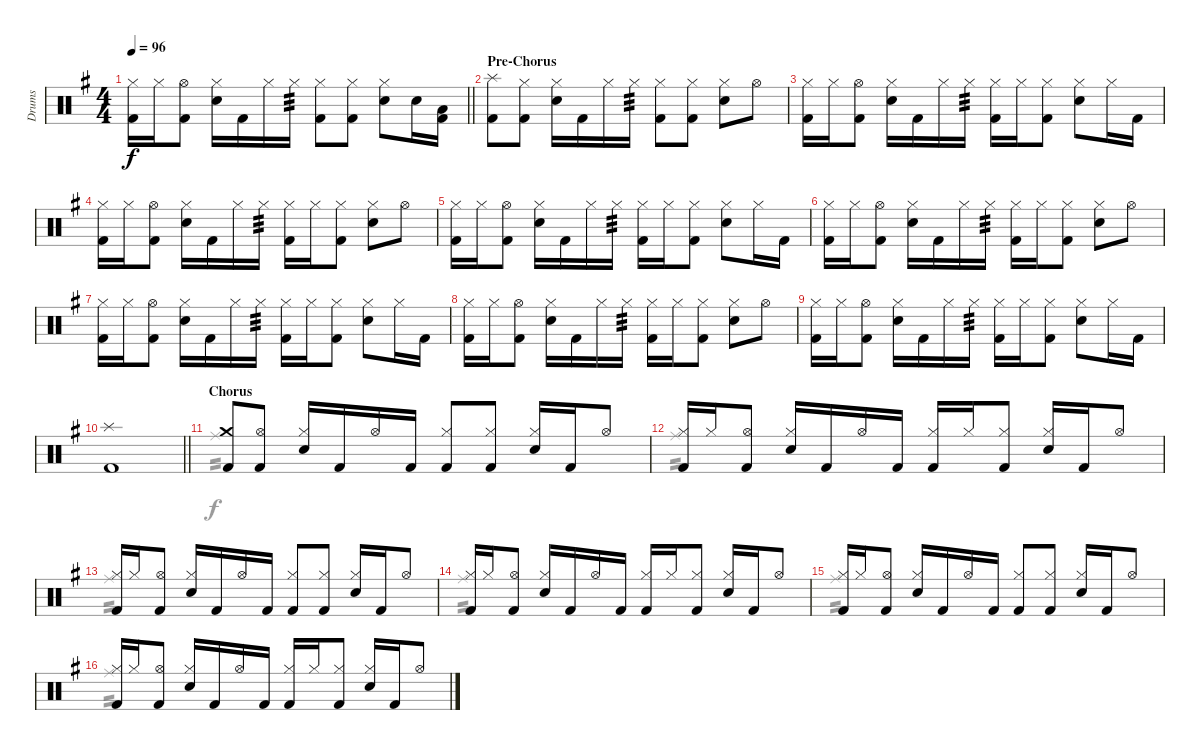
\track ("Drums" "Drums") {instrument percussion}
\staff {score}
\articulation defaults
\voice
\ts (4 4)
\tempo 96
\clef neutral
\barLineRight lightlight
\ks g
("Hi-Hat (closed)" "Kick (hit) 2").16{dy f} "Hi-Hat (closed)".16 ("Hi-Hat (open)" "Kick (hit) 2").8 ("Hi-Hat (closed)" "Electric Snare (hit)").16 "Kick (hit) 2".16 "Hi-Hat (closed)".16 "Hi-Hat (closed)".16{tp 3} ("Hi-Hat (closed)" "Kick (hit) 2").8 ("Hi-Hat (closed)" "Kick (hit) 2").8 ("Hi-Hat (closed)" "Electric Snare (hit)").8 "Electric Snare (hit)".16 ("Low Tom (hit)" "Kick (hit) 2").16 |
\section ("" "Pre-Chorus")
("Splash (hit)" "Kick (hit) 2").8 ("Hi-Hat (closed)" "Kick (hit) 2").8 ("Hi-Hat (closed)" "Electric Snare (hit)").16 "Kick (hit) 2".16 "Hi-Hat (closed)".16 "Hi-Hat (closed)".16{tp 3} ("Hi-Hat (closed)" "Kick (hit) 2").8 ("Hi-Hat (closed)" "Kick (hit) 2").8 ("Hi-Hat (closed)" "Electric Snare (hit)").8 "Hi-Hat (open)".8 |
("Hi-Hat (closed)" "Kick (hit) 2").16 "Hi-Hat (closed)".16 ("Hi-Hat (open)" "Kick (hit) 2").8 ("Hi-Hat (closed)" "Electric Snare (hit)").16 "Kick (hit) 2".16 "Hi-Hat (closed)".16 "Hi-Hat (closed)".16{tp 3} ("Hi-Hat (closed)" "Kick (hit) 2").16 "Hi-Hat (closed)".16 ("Hi-Hat (closed)" "Kick (hit) 2").8 ("Hi-Hat (closed)" "Electric Snare (hit)").8 "Hi-Hat (closed)".16 "Kick (hit) 2".16 |
("Hi-Hat (closed)" "Kick (hit) 2").16 "Hi-Hat (closed)".16 ("Hi-Hat (open)" "Kick (hit) 2").8 ("Hi-Hat (closed)" "Electric Snare (hit)").16 "Kick (hit) 2".16 "Hi-Hat (closed)".16 "Hi-Hat (closed)".16{tp 3} ("Hi-Hat (closed)" "Kick (hit) 2").16 "Hi-Hat (closed)".16 ("Hi-Hat (closed)" "Kick (hit) 2").8 ("Hi-Hat (closed)" "Electric Snare (hit)").8 "Hi-Hat (open)".8 |
("Hi-Hat (closed)" "Kick (hit) 2").16 "Hi-Hat (closed)".16 ("Hi-Hat (open)" "Kick (hit) 2").8 ("Hi-Hat (closed)" "Electric Snare (hit)").16 "Kick (hit) 2".16 "Hi-Hat (closed)".16 "Hi-Hat (closed)".16{tp 3} ("Hi-Hat (closed)" "Kick (hit) 2").16 "Hi-Hat (closed)".16 ("Hi-Hat (closed)" "Kick (hit) 2").8 ("Hi-Hat (closed)" "Electric Snare (hit)").8 "Hi-Hat (closed)".16 "Kick (hit) 2".16 |
("Hi-Hat (closed)" "Kick (hit) 2").16 "Hi-Hat (closed)".16 ("Hi-Hat (open)" "Kick (hit) 2").8 ("Hi-Hat (closed)" "Electric Snare (hit)").16 "Kick (hit) 2".16 "Hi-Hat (closed)".16 "Hi-Hat (closed)".16{tp 3} ("Hi-Hat (closed)" "Kick (hit) 2").16 "Hi-Hat (closed)".16 ("Hi-Hat (closed)" "Kick (hit) 2").8 ("Hi-Hat (closed)" "Electric Snare (hit)").8 "Hi-Hat (open)".8 |
("Hi-Hat (closed)" "Kick (hit) 2").16 "Hi-Hat (closed)".16 ("Hi-Hat (open)" "Kick (hit) 2").8 ("Hi-Hat (closed)" "Electric Snare (hit)").16 "Kick (hit) 2".16 "Hi-Hat (closed)".16 "Hi-Hat (closed)".16{tp 3} ("Hi-Hat (closed)" "Kick (hit) 2").16 "Hi-Hat (closed)".16 ("Hi-Hat (closed)" "Kick (hit) 2").8 ("Hi-Hat (closed)" "Electric Snare (hit)").8 "Hi-Hat (closed)".16 "Kick (hit) 2".16 |
("Hi-Hat (closed)" "Kick (hit) 2").16 "Hi-Hat (closed)".16 ("Hi-Hat (open)" "Kick (hit) 2").8 ("Hi-Hat (closed)" "Electric Snare (hit)").16 "Kick (hit) 2".16 "Hi-Hat (closed)".16 "Hi-Hat (closed)".16{tp 3} ("Hi-Hat (closed)" "Kick (hit) 2").16 "Hi-Hat (closed)".16 ("Hi-Hat (closed)" "Kick (hit) 2").8 ("Hi-Hat (closed)" "Electric Snare (hit)").8 "Hi-Hat (open)".8 |
("Hi-Hat (closed)" "Kick (hit) 2").16 "Hi-Hat (closed)".16 ("Hi-Hat (open)" "Kick (hit) 2").8 ("Hi-Hat (closed)" "Electric Snare (hit)").16 "Kick (hit) 2".16 "Hi-Hat (closed)".16 "Hi-Hat (closed)".16{tp 3} ("Hi-Hat (closed)" "Kick (hit) 2").16 "Hi-Hat (closed)".16 ("Hi-Hat (closed)" "Kick (hit) 2").8 ("Hi-Hat (closed)" "Electric Snare (hit)").8 "Hi-Hat (closed)".16 "Kick (hit) 2".16 |
\barLineRight lightlight
("Splash (hit)" "Kick (hit) 2").1 |
\section ("" "Chorus")
("Crash medium (hit)" "Kick (hit) 2").8 ("Hi-Hat (open)" "Kick (hit) 2").8 ("Hi-Hat (closed)" "Electric Snare (hit)").16 "Kick (hit) 2".16 "Hi-Hat (open)".16 "Kick (hit) 2".16 ("Hi-Hat (closed)" "Kick (hit) 2").8 ("Hi-Hat (closed)" "Kick (hit) 2").8 ("Hi-Hat (closed)" "Electric Snare (hit)").16 "Kick (hit) 2".16 "Hi-Hat (open)".8 |
("Hi-Hat (closed)" "Kick (hit) 2").16 "Hi-Hat (closed)".16 ("Hi-Hat (open)" "Kick (hit) 2").8 ("Hi-Hat (closed)" "Electric Snare (hit)").16 "Kick (hit) 2".16 "Hi-Hat (open)".16 "Kick (hit) 2".16 ("Hi-Hat (closed)" "Kick (hit) 2").16 "Hi-Hat (closed)".16 ("Hi-Hat (closed)" "Kick (hit) 2").8 ("Hi-Hat (closed)" "Electric Snare (hit)").16 "Kick (hit) 2".16 "Hi-Hat (open)".8 |
("Hi-Hat (closed)" "Kick (hit) 2").16 "Hi-Hat (closed)".16 ("Hi-Hat (open)" "Kick (hit) 2").8 ("Hi-Hat (closed)" "Electric Snare (hit)").16 "Kick (hit) 2".16 "Hi-Hat (open)".16 "Kick (hit) 2".16 ("Hi-Hat (closed)" "Kick (hit) 2").8 ("Hi-Hat (closed)" "Kick (hit) 2").8 ("Hi-Hat (closed)" "Electric Snare (hit)").16 "Kick (hit) 2".16 "Hi-Hat (open)".8 |
("Hi-Hat (closed)" "Kick (hit) 2").16 "Hi-Hat (closed)".16 ("Hi-Hat (open)" "Kick (hit) 2").8 ("Hi-Hat (closed)" "Electric Snare (hit)").16 "Kick (hit) 2".16 "Hi-Hat (open)".16 "Kick (hit) 2".16 ("Hi-Hat (closed)" "Kick (hit) 2").16 "Hi-Hat (closed)".16 ("Hi-Hat (closed)" "Kick (hit) 2").8 ("Hi-Hat (closed)" "Electric Snare (hit)").16 "Kick (hit) 2".16 "Hi-Hat (open)".8 |
("Hi-Hat (closed)" "Kick (hit) 2").16 "Hi-Hat (closed)".16 ("Hi-Hat (open)" "Kick (hit) 2").8 ("Hi-Hat (closed)" "Electric Snare (hit)").16 "Kick (hit) 2".16 "Hi-Hat (open)".16 "Kick (hit) 2".16 ("Hi-Hat (closed)" "Kick (hit) 2").8 ("Hi-Hat (closed)" "Kick (hit) 2").8 ("Hi-Hat (closed)" "Electric Snare (hit)").16 "Kick (hit) 2".16 "Hi-Hat (open)".8 |
("Hi-Hat (closed)" "Kick (hit) 2").16 "Hi-Hat (closed)".16 ("Hi-Hat (open)" "Kick (hit) 2").8 ("Hi-Hat (closed)" "Electric Snare (hit)").16 "Kick (hit) 2".16 "Hi-Hat (open)".16 "Kick (hit) 2".16 ("Hi-Hat (closed)" "Kick (hit) 2").16 "Hi-Hat (closed)".16 ("Hi-Hat (closed)" "Kick (hit) 2").8 ("Hi-Hat (closed)" "Electric Snare (hit)").16 "Kick (hit) 2".16 "Hi-Hat (open)".8
\voice
\clef neutral
\ottava regular
\simile none
\barLineRight lightlight
\ks g
|
|
|
|
|
|
|
|
|
\barLineRight lightlight
|
"Ride (middle)".1{tp 2} |
"Ride (middle)".1{tp 2} |
"Ride (middle)".1{tp 2} |
"Ride (middle)".1{tp 2} |
"Ride (middle)".1{tp 2} |
"Ride (middle)".1{tp 2}
